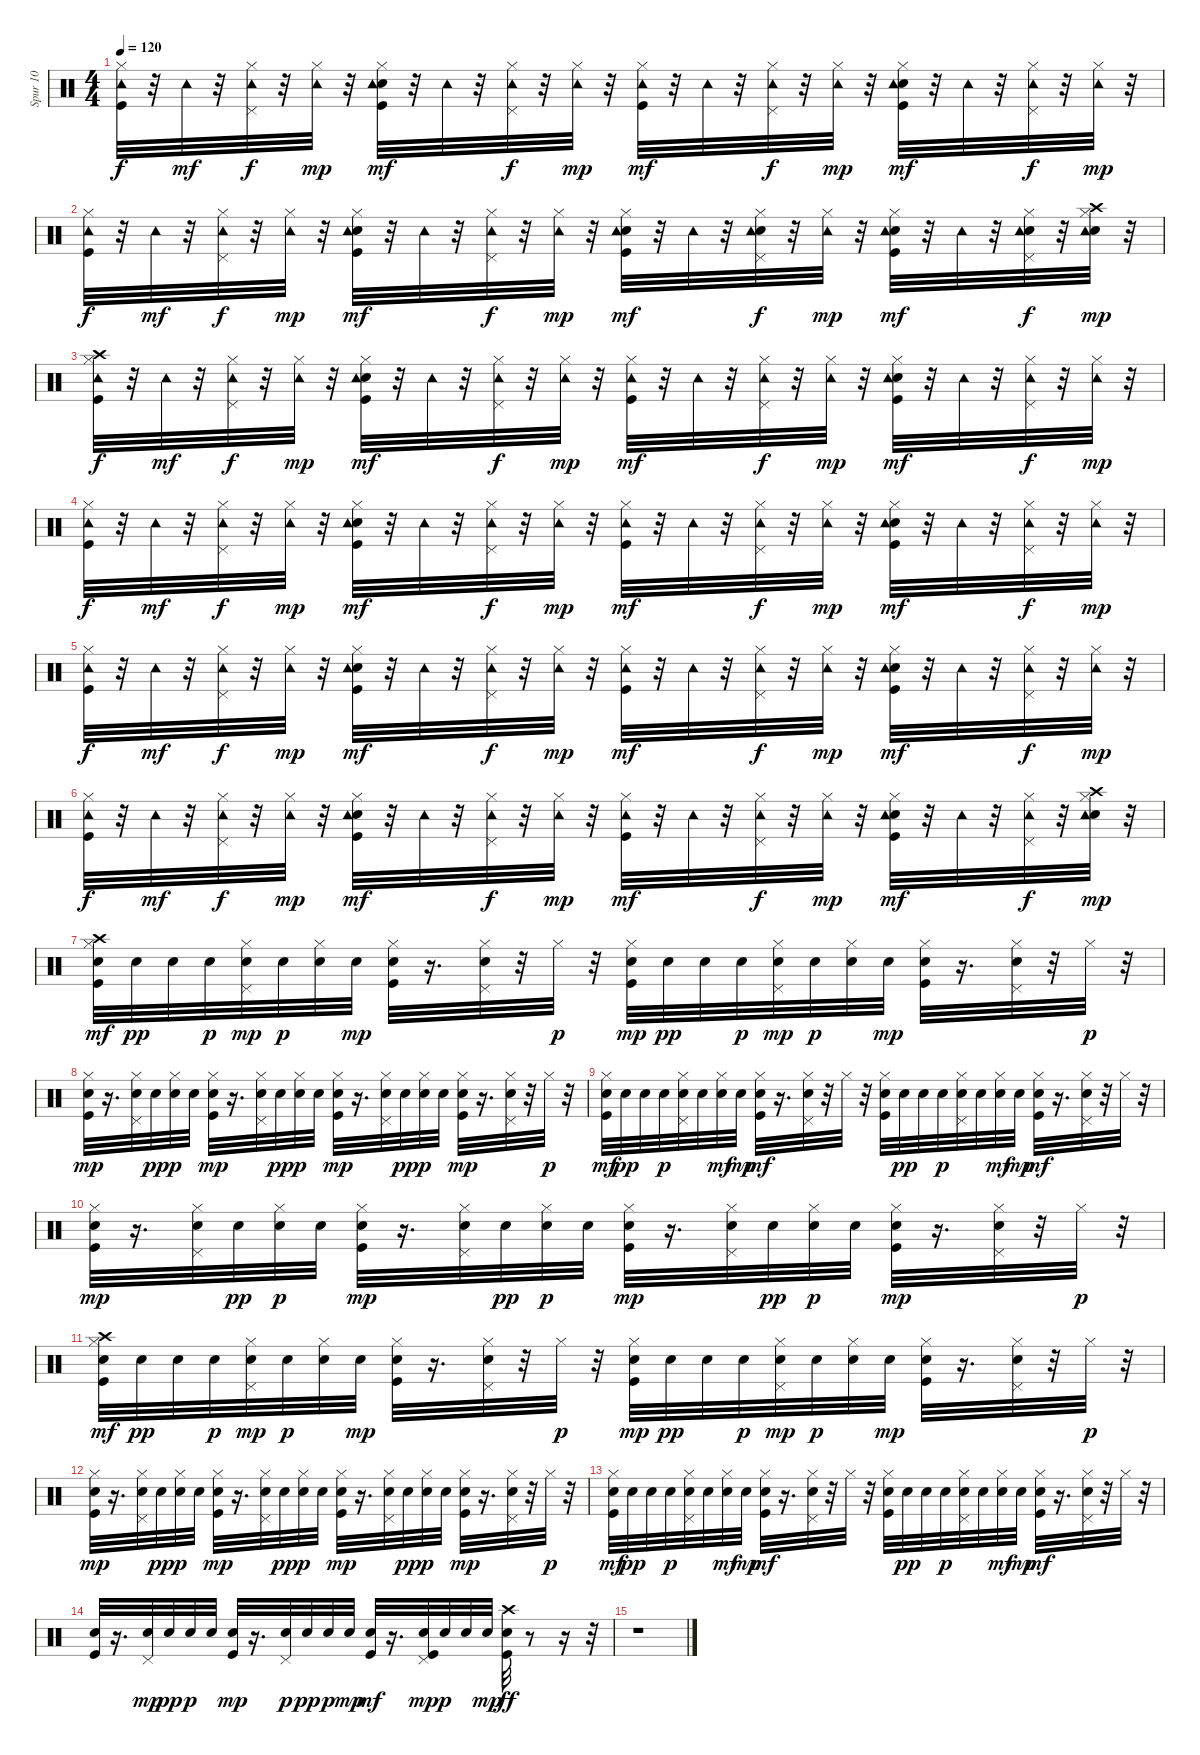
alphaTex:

\track ("Spur 10" "Spur 10") {instrument percussion}
\staff {score}
\articulation defaults
\ts (4 4)
\tempo 120
\clef neutral
\ks c
("Kick (hit)" "Hi-Hat (closed)" "Tambourine (hit)").32{dy f} r.32 "Tambourine (hit)".32{dy mf} r.32 ("Hi-Hat (closed)" "Pedal Hi-Hat (hit)" "Tambourine (hit)").32{dy f} r.32 ("Hi-Hat (closed)" "Tambourine (hit)").32{dy mp} r.32 ("Kick (hit)" "Snare (hit) 2" "Hi-Hat (closed)" "Tambourine (hit)").32{dy mf} r.32 "Tambourine (hit)".32 r.32 ("Hi-Hat (closed)" "Pedal Hi-Hat (hit)" "Tambourine (hit)").32{dy f} r.32 ("Hi-Hat (closed)" "Tambourine (hit)").32{dy mp} r.32 ("Kick (hit)" "Hi-Hat (closed)" "Tambourine (hit)").32{dy mf} r.32 "Tambourine (hit)".32 r.32 ("Hi-Hat (closed)" "Pedal Hi-Hat (hit)" "Tambourine (hit)").32{dy f} r.32 ("Hi-Hat (closed)" "Tambourine (hit)").32{dy mp} r.32 ("Kick (hit)" "Snare (hit) 2" "Hi-Hat (closed)" "Tambourine (hit)").32{dy mf} r.32 "Tambourine (hit)".32 r.32 ("Hi-Hat (closed)" "Pedal Hi-Hat (hit)" "Tambourine (hit)").32{dy f} r.32 ("Hi-Hat (closed)" "Tambourine (hit)").32{dy mp} r.32 |
("Kick (hit)" "Hi-Hat (closed)" "Tambourine (hit)").32{dy f} r.32 "Tambourine (hit)".32{dy mf} r.32 ("Hi-Hat (closed)" "Pedal Hi-Hat (hit)" "Tambourine (hit)").32{dy f} r.32 ("Hi-Hat (closed)" "Tambourine (hit)").32{dy mp} r.32 ("Kick (hit)" "Snare (hit) 2" "Hi-Hat (closed)" "Tambourine (hit)").32{dy mf} r.32 "Tambourine (hit)".32 r.32 ("Hi-Hat (closed)" "Pedal Hi-Hat (hit)" "Tambourine (hit)").32{dy f} r.32 ("Hi-Hat (closed)" "Tambourine (hit)").32{dy mp} r.32 ("Kick (hit)" "Snare (hit) 2" "Hi-Hat (closed)" "Tambourine (hit)").32{dy mf} r.32 "Tambourine (hit)".32 r.32 ("Snare (hit) 2" "Hi-Hat (closed)" "Pedal Hi-Hat (hit)" "Tambourine (hit)").32{dy f} r.32 ("Hi-Hat (closed)" "Tambourine (hit)").32{dy mp} r.32 ("Kick (hit)" "Snare (hit) 2" "Hi-Hat (closed)" "Tambourine (hit)").32{dy mf} r.32 "Tambourine (hit)".32 r.32 ("Snare (hit) 2" "Hi-Hat (closed)" "Pedal Hi-Hat (hit)" "Tambourine (hit)").32{dy f} r.32 ("Snare (hit) 2" "Hi-Hat (closed)" "Crash high (hit)" "Tambourine (hit)").32{dy mp} r.32 |
("Kick (hit)" "Hi-Hat (closed)" "Crash high (hit)" "Tambourine (hit)").32{dy f} r.32 "Tambourine (hit)".32{dy mf} r.32 ("Hi-Hat (closed)" "Pedal Hi-Hat (hit)" "Tambourine (hit)").32{dy f} r.32 ("Hi-Hat (closed)" "Tambourine (hit)").32{dy mp} r.32 ("Kick (hit)" "Snare (hit) 2" "Hi-Hat (closed)" "Tambourine (hit)").32{dy mf} r.32 "Tambourine (hit)".32 r.32 ("Hi-Hat (closed)" "Pedal Hi-Hat (hit)" "Tambourine (hit)").32{dy f} r.32 ("Hi-Hat (closed)" "Tambourine (hit)").32{dy mp} r.32 ("Kick (hit)" "Hi-Hat (closed)" "Tambourine (hit)").32{dy mf} r.32 "Tambourine (hit)".32 r.32 ("Hi-Hat (closed)" "Pedal Hi-Hat (hit)" "Tambourine (hit)").32{dy f} r.32 ("Hi-Hat (closed)" "Tambourine (hit)").32{dy mp} r.32 ("Kick (hit)" "Snare (hit) 2" "Hi-Hat (closed)" "Tambourine (hit)").32{dy mf} r.32 "Tambourine (hit)".32 r.32 ("Hi-Hat (closed)" "Pedal Hi-Hat (hit)" "Tambourine (hit)").32{dy f} r.32 ("Hi-Hat (closed)" "Tambourine (hit)").32{dy mp} r.32 |
("Kick (hit)" "Hi-Hat (closed)" "Tambourine (hit)").32{dy f} r.32 "Tambourine (hit)".32{dy mf} r.32 ("Hi-Hat (closed)" "Pedal Hi-Hat (hit)" "Tambourine (hit)").32{dy f} r.32 ("Hi-Hat (closed)" "Tambourine (hit)").32{dy mp} r.32 ("Kick (hit)" "Snare (hit) 2" "Hi-Hat (closed)" "Tambourine (hit)").32{dy mf} r.32 "Tambourine (hit)".32 r.32 ("Hi-Hat (closed)" "Pedal Hi-Hat (hit)" "Tambourine (hit)").32{dy f} r.32 ("Hi-Hat (closed)" "Tambourine (hit)").32{dy mp} r.32 ("Kick (hit)" "Hi-Hat (closed)" "Tambourine (hit)").32{dy mf} r.32 "Tambourine (hit)".32 r.32 ("Hi-Hat (closed)" "Pedal Hi-Hat (hit)" "Tambourine (hit)").32{dy f} r.32 ("Hi-Hat (closed)" "Tambourine (hit)").32{dy mp} r.32 ("Kick (hit)" "Snare (hit) 2" "Hi-Hat (closed)" "Tambourine (hit)").32{dy mf} r.32 "Tambourine (hit)".32 r.32 ("Hi-Hat (closed)" "Pedal Hi-Hat (hit)" "Tambourine (hit)").32{dy f} r.32 ("Hi-Hat (closed)" "Tambourine (hit)").32{dy mp} r.32 |
("Kick (hit)" "Hi-Hat (closed)" "Tambourine (hit)").32{dy f} r.32 "Tambourine (hit)".32{dy mf} r.32 ("Hi-Hat (closed)" "Pedal Hi-Hat (hit)" "Tambourine (hit)").32{dy f} r.32 ("Hi-Hat (closed)" "Tambourine (hit)").32{dy mp} r.32 ("Kick (hit)" "Snare (hit) 2" "Hi-Hat (closed)" "Tambourine (hit)").32{dy mf} r.32 "Tambourine (hit)".32 r.32 ("Hi-Hat (closed)" "Pedal Hi-Hat (hit)" "Tambourine (hit)").32{dy f} r.32 ("Hi-Hat (closed)" "Tambourine (hit)").32{dy mp} r.32 ("Kick (hit)" "Hi-Hat (closed)" "Tambourine (hit)").32{dy mf} r.32 "Tambourine (hit)".32 r.32 ("Hi-Hat (closed)" "Pedal Hi-Hat (hit)" "Tambourine (hit)").32{dy f} r.32 ("Hi-Hat (closed)" "Tambourine (hit)").32{dy mp} r.32 ("Kick (hit)" "Snare (hit) 2" "Hi-Hat (closed)" "Tambourine (hit)").32{dy mf} r.32 "Tambourine (hit)".32 r.32 ("Hi-Hat (closed)" "Pedal Hi-Hat (hit)" "Tambourine (hit)").32{dy f} r.32 ("Hi-Hat (closed)" "Tambourine (hit)").32{dy mp} r.32 |
("Kick (hit)" "Hi-Hat (closed)" "Tambourine (hit)").32{dy f} r.32 "Tambourine (hit)".32{dy mf} r.32 ("Hi-Hat (closed)" "Pedal Hi-Hat (hit)" "Tambourine (hit)").32{dy f} r.32 ("Hi-Hat (closed)" "Tambourine (hit)").32{dy mp} r.32 ("Kick (hit)" "Snare (hit) 2" "Hi-Hat (closed)" "Tambourine (hit)").32{dy mf} r.32 "Tambourine (hit)".32 r.32 ("Hi-Hat (closed)" "Pedal Hi-Hat (hit)" "Tambourine (hit)").32{dy f} r.32 ("Hi-Hat (closed)" "Tambourine (hit)").32{dy mp} r.32 ("Kick (hit)" "Hi-Hat (closed)" "Tambourine (hit)").32{dy mf} r.32 "Tambourine (hit)".32 r.32 ("Hi-Hat (closed)" "Pedal Hi-Hat (hit)" "Tambourine (hit)").32{dy f} r.32 ("Hi-Hat (closed)" "Tambourine (hit)").32{dy mp} r.32 ("Kick (hit)" "Snare (hit) 2" "Hi-Hat (closed)" "Tambourine (hit)").32{dy mf} r.32 "Tambourine (hit)".32 r.32 ("Hi-Hat (closed)" "Pedal Hi-Hat (hit)" "Tambourine (hit)").32{dy f} r.32 ("Snare (hit) 2" "Hi-Hat (closed)" "Crash high (hit)" "Tambourine (hit)").32{dy mp} r.32 |
("Kick (hit)" "Snare (hit) 2" "Hi-Hat (closed)" "Crash high (hit)").32{dy mf} "Snare (hit) 2".32{dy pp} "Snare (hit) 2".32 "Snare (hit) 2".32{dy p} ("Snare (hit) 2" "Hi-Hat (closed)" "Pedal Hi-Hat (hit)").32{dy mp} "Snare (hit) 2".32{dy p} ("Snare (hit) 2" "Hi-Hat (closed)").32 "Snare (hit) 2".32{dy mp} ("Kick (hit)" "Snare (hit) 2" "Hi-Hat (closed)").32 r.16{d} ("Snare (hit) 2" "Hi-Hat (closed)" "Pedal Hi-Hat (hit)").32 r.32 "Hi-Hat (closed)".32{dy p} r.32 ("Kick (hit)" "Snare (hit) 2" "Hi-Hat (closed)").32{dy mp} "Snare (hit) 2".32{dy pp} "Snare (hit) 2".32 "Snare (hit) 2".32{dy p} ("Snare (hit) 2" "Hi-Hat (closed)" "Pedal Hi-Hat (hit)").32{dy mp} "Snare (hit) 2".32{dy p} ("Snare (hit) 2" "Hi-Hat (closed)").32 "Snare (hit) 2".32{dy mp} ("Kick (hit)" "Snare (hit) 2" "Hi-Hat (closed)").32 r.16{d} ("Snare (hit) 2" "Hi-Hat (closed)" "Pedal Hi-Hat (hit)").32 r.32 "Hi-Hat (closed)".32{dy p} r.32 |
("Kick (hit)" "Snare (hit) 2" "Hi-Hat (closed)").32{dy mp} r.16{d} ("Snare (hit) 2" "Hi-Hat (closed)" "Pedal Hi-Hat (hit)").32 "Snare (hit) 2".32{dy pp} ("Snare (hit) 2" "Hi-Hat (closed)").32{dy p} "Snare (hit) 2".32 ("Kick (hit)" "Snare (hit) 2" "Hi-Hat (closed)").32{dy mp} r.16{d} ("Snare (hit) 2" "Hi-Hat (closed)" "Pedal Hi-Hat (hit)").32 "Snare (hit) 2".32{dy pp} ("Snare (hit) 2" "Hi-Hat (closed)").32{dy p} "Snare (hit) 2".32 ("Kick (hit)" "Snare (hit) 2" "Hi-Hat (closed)").32{dy mp} r.16{d} ("Snare (hit) 2" "Hi-Hat (closed)" "Pedal Hi-Hat (hit)").32 "Snare (hit) 2".32{dy pp} ("Snare (hit) 2" "Hi-Hat (closed)").32{dy p} "Snare (hit) 2".32 ("Kick (hit)" "Snare (hit) 2" "Hi-Hat (closed)").32{dy mp} r.16{d} ("Snare (hit) 2" "Hi-Hat (closed)" "Pedal Hi-Hat (hit)").32 r.32 "Hi-Hat (closed)".32{dy p} r.32 |
("Kick (hit)" "Snare (hit) 2" "Hi-Hat (closed)").32{dy mf} "Snare (hit) 2".32{dy pp} "Snare (hit) 2".32 "Snare (hit) 2".32{dy p} ("Snare (hit) 2" "Hi-Hat (closed)" "Pedal Hi-Hat (hit)").32 "Snare (hit) 2".32 ("Snare (hit) 2" "Hi-Hat (closed)").32{dy mf} "Snare (hit) 2".32{dy mp} ("Kick (hit)" "Snare (hit) 2" "Hi-Hat (closed)").32{dy mf} r.16{d} ("Snare (hit) 2" "Hi-Hat (closed)" "Pedal Hi-Hat (hit)").32 r.32 "Hi-Hat (closed)".32 r.32 ("Kick (hit)" "Snare (hit) 2" "Hi-Hat (closed)").32 "Snare (hit) 2".32{dy pp} "Snare (hit) 2".32 "Snare (hit) 2".32{dy p} ("Snare (hit) 2" "Hi-Hat (closed)" "Pedal Hi-Hat (hit)").32 "Snare (hit) 2".32 ("Snare (hit) 2" "Hi-Hat (closed)").32{dy mf} "Snare (hit) 2".32{dy mp} ("Kick (hit)" "Snare (hit) 2" "Hi-Hat (closed)").32{dy mf} r.16{d} ("Snare (hit) 2" "Hi-Hat (closed)" "Pedal Hi-Hat (hit)").32 r.32 "Hi-Hat (closed)".32 r.32 |
("Kick (hit)" "Snare (hit) 2" "Hi-Hat (closed)").32{dy mp} r.16{d} ("Snare (hit) 2" "Hi-Hat (closed)" "Pedal Hi-Hat (hit)").32 "Snare (hit) 2".32{dy pp} ("Snare (hit) 2" "Hi-Hat (closed)").32{dy p} "Snare (hit) 2".32 ("Kick (hit)" "Snare (hit) 2" "Hi-Hat (closed)").32{dy mp} r.16{d} ("Snare (hit) 2" "Hi-Hat (closed)" "Pedal Hi-Hat (hit)").32 "Snare (hit) 2".32{dy pp} ("Snare (hit) 2" "Hi-Hat (closed)").32{dy p} "Snare (hit) 2".32 ("Kick (hit)" "Snare (hit) 2" "Hi-Hat (closed)").32{dy mp} r.16{d} ("Snare (hit) 2" "Hi-Hat (closed)" "Pedal Hi-Hat (hit)").32 "Snare (hit) 2".32{dy pp} ("Snare (hit) 2" "Hi-Hat (closed)").32{dy p} "Snare (hit) 2".32 ("Kick (hit)" "Snare (hit) 2" "Hi-Hat (closed)").32{dy mp} r.16{d} ("Snare (hit) 2" "Hi-Hat (closed)" "Pedal Hi-Hat (hit)").32 r.32 "Hi-Hat (closed)".32{dy p} r.32 |
("Kick (hit)" "Snare (hit) 2" "Hi-Hat (closed)" "Crash high (hit)").32{dy mf} "Snare (hit) 2".32{dy pp} "Snare (hit) 2".32 "Snare (hit) 2".32{dy p} ("Snare (hit) 2" "Hi-Hat (closed)" "Pedal Hi-Hat (hit)").32{dy mp} "Snare (hit) 2".32{dy p} ("Snare (hit) 2" "Hi-Hat (closed)").32 "Snare (hit) 2".32{dy mp} ("Kick (hit)" "Snare (hit) 2" "Hi-Hat (closed)").32 r.16{d} ("Snare (hit) 2" "Hi-Hat (closed)" "Pedal Hi-Hat (hit)").32 r.32 "Hi-Hat (closed)".32{dy p} r.32 ("Kick (hit)" "Snare (hit) 2" "Hi-Hat (closed)").32{dy mp} "Snare (hit) 2".32{dy pp} "Snare (hit) 2".32 "Snare (hit) 2".32{dy p} ("Snare (hit) 2" "Hi-Hat (closed)" "Pedal Hi-Hat (hit)").32{dy mp} "Snare (hit) 2".32{dy p} ("Snare (hit) 2" "Hi-Hat (closed)").32 "Snare (hit) 2".32{dy mp} ("Kick (hit)" "Snare (hit) 2" "Hi-Hat (closed)").32 r.16{d} ("Snare (hit) 2" "Hi-Hat (closed)" "Pedal Hi-Hat (hit)").32 r.32 "Hi-Hat (closed)".32{dy p} r.32 |
("Kick (hit)" "Snare (hit) 2" "Hi-Hat (closed)").32{dy mp} r.16{d} ("Snare (hit) 2" "Hi-Hat (closed)" "Pedal Hi-Hat (hit)").32 "Snare (hit) 2".32{dy pp} ("Snare (hit) 2" "Hi-Hat (closed)").32{dy p} "Snare (hit) 2".32 ("Kick (hit)" "Snare (hit) 2" "Hi-Hat (closed)").32{dy mp} r.16{d} ("Snare (hit) 2" "Hi-Hat (closed)" "Pedal Hi-Hat (hit)").32 "Snare (hit) 2".32{dy pp} ("Snare (hit) 2" "Hi-Hat (closed)").32{dy p} "Snare (hit) 2".32 ("Kick (hit)" "Snare (hit) 2" "Hi-Hat (closed)").32{dy mp} r.16{d} ("Snare (hit) 2" "Hi-Hat (closed)" "Pedal Hi-Hat (hit)").32 "Snare (hit) 2".32{dy pp} ("Snare (hit) 2" "Hi-Hat (closed)").32{dy p} "Snare (hit) 2".32 ("Kick (hit)" "Snare (hit) 2" "Hi-Hat (closed)").32{dy mp} r.16{d} ("Snare (hit) 2" "Hi-Hat (closed)" "Pedal Hi-Hat (hit)").32 r.32 "Hi-Hat (closed)".32{dy p} r.32 |
("Kick (hit)" "Snare (hit) 2" "Hi-Hat (closed)").32{dy mf} "Snare (hit) 2".32{dy pp} "Snare (hit) 2".32 "Snare (hit) 2".32{dy p} ("Snare (hit) 2" "Hi-Hat (closed)" "Pedal Hi-Hat (hit)").32 "Snare (hit) 2".32 ("Snare (hit) 2" "Hi-Hat (closed)").32{dy mf} "Snare (hit) 2".32{dy mp} ("Kick (hit)" "Snare (hit) 2" "Hi-Hat (closed)").32{dy mf} r.16{d} ("Snare (hit) 2" "Hi-Hat (closed)" "Pedal Hi-Hat (hit)").32 r.32 "Hi-Hat (closed)".32 r.32 ("Kick (hit)" "Snare (hit) 2" "Hi-Hat (closed)").32 "Snare (hit) 2".32{dy pp} "Snare (hit) 2".32 "Snare (hit) 2".32{dy p} ("Snare (hit) 2" "Hi-Hat (closed)" "Pedal Hi-Hat (hit)").32 "Snare (hit) 2".32 ("Snare (hit) 2" "Hi-Hat (closed)").32{dy mf} "Snare (hit) 2".32{dy mp} ("Kick (hit)" "Snare (hit) 2" "Hi-Hat (closed)").32{dy mf} r.16{d} ("Snare (hit) 2" "Hi-Hat (closed)" "Pedal Hi-Hat (hit)").32 r.32 "Hi-Hat (closed)".32 r.32 |
("Kick (hit)" "Snare (hit) 2").32 r.16{d} ("Snare (hit) 2" "Pedal Hi-Hat (hit)").32{dy mp} "Snare (hit) 2".32{dy pp} "Snare (hit) 2".32{dy p} "Snare (hit) 2".32 ("Kick (hit)" "Snare (hit) 2").32{dy mp} r.16{d} ("Snare (hit) 2" "Pedal Hi-Hat (hit)").32{dy p} "Snare (hit) 2".32{dy pp} "Snare (hit) 2".32{dy p} "Snare (hit) 2".32{dy mp} ("Kick (hit)" "Snare (hit) 2").32{dy mf} r.16{d} ("Kick (hit)" "Snare (hit) 2" "Pedal Hi-Hat (hit)").32{dy mp} "Snare (hit) 2".32{dy p} "Snare (hit) 2".32 "Snare (hit) 2".32{dy mp} ("Kick (hit)" "Snare (hit) 2" "Crash high (hit)").32{dy ff} r.8 r.16 r.32 |
r.1
